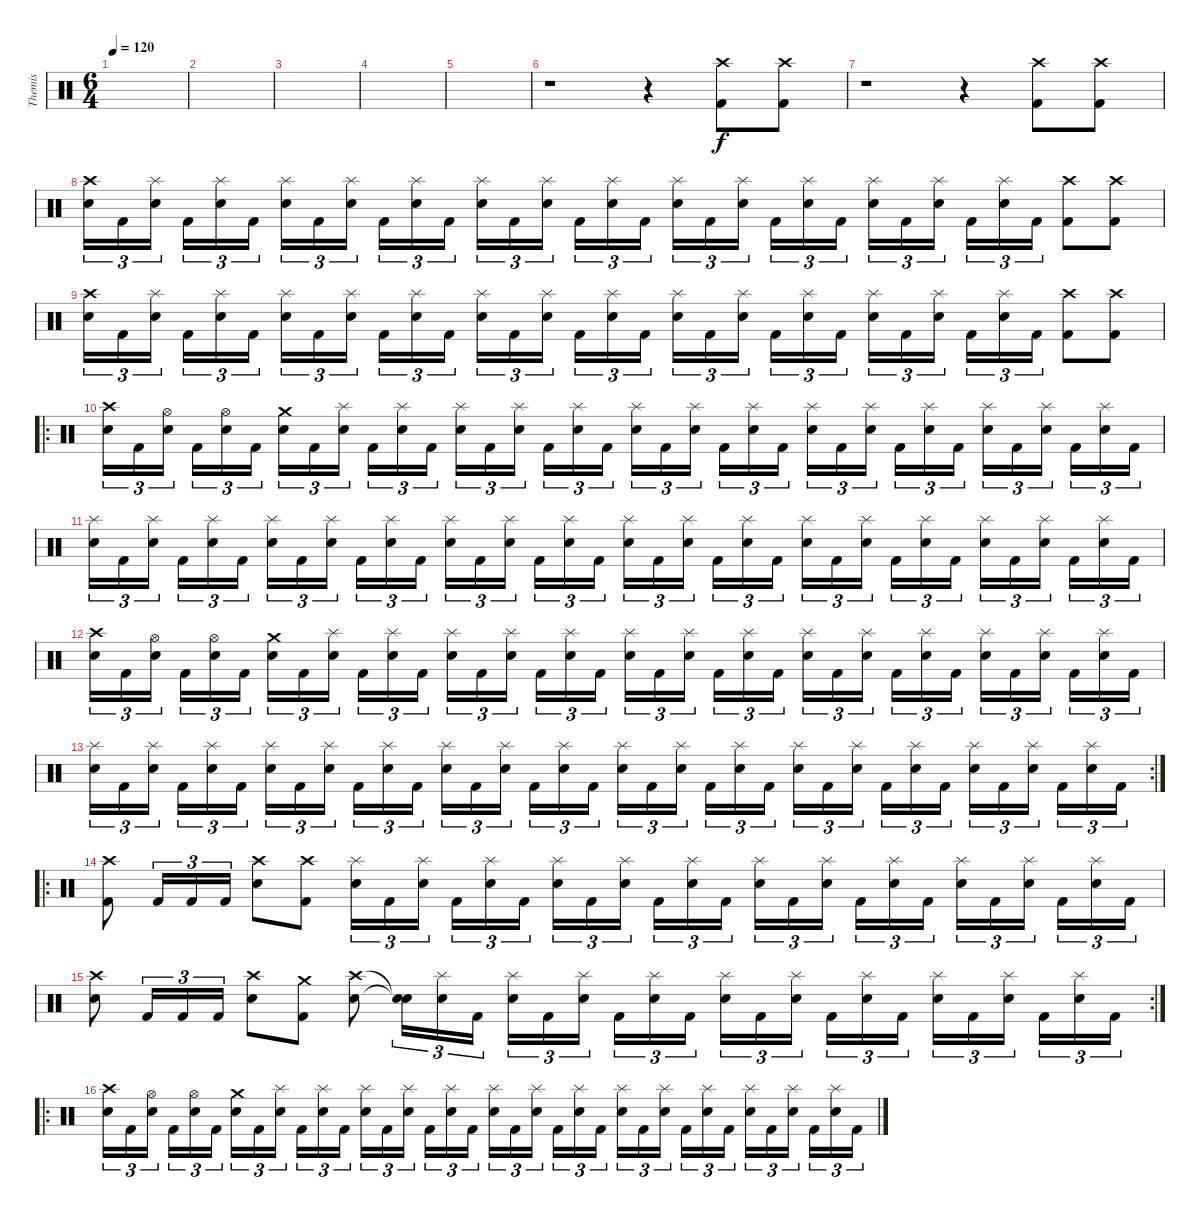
\track ("Themis" "Themis") {instrument percussion}
\staff {score}
\articulation defaults
\ts (6 4)
\tempo 120
\clef neutral
\ks c
|
|
|
|
|
r.1 r.4 ("Crash high (hit)" "Kick (hit) 2").8 ("Crash high (hit)" "Kick (hit) 2").8 |
r.1 r.4 ("Crash high (hit)" "Kick (hit) 2").8 ("Crash high (hit)" "Kick (hit) 2").8 |
("Crash high (hit)" "Electric Snare (hit)").16{tu (3 2)} "Kick (hit) 2".16{tu (3 2)} ("Splash (hit)" "Electric Snare (hit)").16{tu (3 2)} "Kick (hit) 2".16{tu (3 2)} ("Splash (hit)" "Electric Snare (hit)").16{tu (3 2)} "Kick (hit) 2".16{tu (3 2)} ("Splash (hit)" "Electric Snare (hit)").16{tu (3 2)} "Kick (hit) 2".16{tu (3 2)} ("Splash (hit)" "Electric Snare (hit)").16{tu (3 2)} "Kick (hit) 2".16{tu (3 2)} ("Splash (hit)" "Electric Snare (hit)").16{tu (3 2)} "Kick (hit) 2".16{tu (3 2)} ("Splash (hit)" "Electric Snare (hit)").16{tu (3 2)} "Kick (hit) 2".16{tu (3 2)} ("Splash (hit)" "Electric Snare (hit)").16{tu (3 2)} "Kick (hit) 2".16{tu (3 2)} ("Splash (hit)" "Electric Snare (hit)").16{tu (3 2)} "Kick (hit) 2".16{tu (3 2)} ("Splash (hit)" "Electric Snare (hit)").16{tu (3 2)} "Kick (hit) 2".16{tu (3 2)} ("Splash (hit)" "Electric Snare (hit)").16{tu (3 2)} "Kick (hit) 2".16{tu (3 2)} ("Splash (hit)" "Electric Snare (hit)").16{tu (3 2)} "Kick (hit) 2".16{tu (3 2)} ("Splash (hit)" "Electric Snare (hit)").16{tu (3 2)} "Kick (hit) 2".16{tu (3 2)} ("Splash (hit)" "Electric Snare (hit)").16{tu (3 2)} "Kick (hit) 2".16{tu (3 2)} ("Splash (hit)" "Electric Snare (hit)").16{tu (3 2)} "Kick (hit) 2".16{tu (3 2)} ("Crash high (hit)" "Kick (hit) 2").8 ("Crash high (hit)" "Kick (hit) 2").8 |
("Crash high (hit)" "Electric Snare (hit)").16{tu (3 2)} "Kick (hit) 2".16{tu (3 2)} ("Splash (hit)" "Electric Snare (hit)").16{tu (3 2)} "Kick (hit) 2".16{tu (3 2)} ("Splash (hit)" "Electric Snare (hit)").16{tu (3 2)} "Kick (hit) 2".16{tu (3 2)} ("Splash (hit)" "Electric Snare (hit)").16{tu (3 2)} "Kick (hit) 2".16{tu (3 2)} ("Splash (hit)" "Electric Snare (hit)").16{tu (3 2)} "Kick (hit) 2".16{tu (3 2)} ("Splash (hit)" "Electric Snare (hit)").16{tu (3 2)} "Kick (hit) 2".16{tu (3 2)} ("Splash (hit)" "Electric Snare (hit)").16{tu (3 2)} "Kick (hit) 2".16{tu (3 2)} ("Splash (hit)" "Electric Snare (hit)").16{tu (3 2)} "Kick (hit) 2".16{tu (3 2)} ("Splash (hit)" "Electric Snare (hit)").16{tu (3 2)} "Kick (hit) 2".16{tu (3 2)} ("Splash (hit)" "Electric Snare (hit)").16{tu (3 2)} "Kick (hit) 2".16{tu (3 2)} ("Splash (hit)" "Electric Snare (hit)").16{tu (3 2)} "Kick (hit) 2".16{tu (3 2)} ("Splash (hit)" "Electric Snare (hit)").16{tu (3 2)} "Kick (hit) 2".16{tu (3 2)} ("Splash (hit)" "Electric Snare (hit)").16{tu (3 2)} "Kick (hit) 2".16{tu (3 2)} ("Splash (hit)" "Electric Snare (hit)").16{tu (3 2)} "Kick (hit) 2".16{tu (3 2)} ("Splash (hit)" "Electric Snare (hit)").16{tu (3 2)} "Kick (hit) 2".16{tu (3 2)} ("Crash high (hit)" "Kick (hit) 2").8 ("Crash high (hit)" "Kick (hit) 2").8 |
\ro
("Crash high (hit)" "Electric Snare (hit)").16{tu (3 2)} "Kick (hit) 2".16{tu (3 2)} ("Hi-Hat (open)" "Electric Snare (hit)").16{tu (3 2)} "Kick (hit) 2".16{tu (3 2)} ("Hi-Hat (open)" "Electric Snare (hit)").16{tu (3 2)} "Kick (hit) 2".16{tu (3 2)} ("Crash medium (hit)" "Electric Snare (hit)").16{tu (3 2)} "Kick (hit) 2".16{tu (3 2)} ("Splash (hit)" "Electric Snare (hit)").16{tu (3 2)} "Kick (hit) 2".16{tu (3 2)} ("Splash (hit)" "Electric Snare (hit)").16{tu (3 2)} "Kick (hit) 2".16{tu (3 2)} ("Splash (hit)" "Electric Snare (hit)").16{tu (3 2)} "Kick (hit) 2".16{tu (3 2)} ("Splash (hit)" "Electric Snare (hit)").16{tu (3 2)} "Kick (hit) 2".16{tu (3 2)} ("Splash (hit)" "Electric Snare (hit)").16{tu (3 2)} "Kick (hit) 2".16{tu (3 2)} ("Splash (hit)" "Electric Snare (hit)").16{tu (3 2)} "Kick (hit) 2".16{tu (3 2)} ("Splash (hit)" "Electric Snare (hit)").16{tu (3 2)} "Kick (hit) 2".16{tu (3 2)} ("Splash (hit)" "Electric Snare (hit)").16{tu (3 2)} "Kick (hit) 2".16{tu (3 2)} ("Splash (hit)" "Electric Snare (hit)").16{tu (3 2)} "Kick (hit) 2".16{tu (3 2)} ("Splash (hit)" "Electric Snare (hit)").16{tu (3 2)} "Kick (hit) 2".16{tu (3 2)} ("Splash (hit)" "Electric Snare (hit)").16{tu (3 2)} "Kick (hit) 2".16{tu (3 2)} ("Splash (hit)" "Electric Snare (hit)").16{tu (3 2)} "Kick (hit) 2".16{tu (3 2)} ("Splash (hit)" "Electric Snare (hit)").16{tu (3 2)} "Kick (hit) 2".16{tu (3 2)} ("Splash (hit)" "Electric Snare (hit)").16{tu (3 2)} "Kick (hit) 2".16{tu (3 2)} |
("Splash (hit)" "Electric Snare (hit)").16{tu (3 2)} "Kick (hit) 2".16{tu (3 2)} ("Splash (hit)" "Electric Snare (hit)").16{tu (3 2)} "Kick (hit) 2".16{tu (3 2)} ("Splash (hit)" "Electric Snare (hit)").16{tu (3 2)} "Kick (hit) 2".16{tu (3 2)} ("Splash (hit)" "Electric Snare (hit)").16{tu (3 2)} "Kick (hit) 2".16{tu (3 2)} ("Splash (hit)" "Electric Snare (hit)").16{tu (3 2)} "Kick (hit) 2".16{tu (3 2)} ("Splash (hit)" "Electric Snare (hit)").16{tu (3 2)} "Kick (hit) 2".16{tu (3 2)} ("Splash (hit)" "Electric Snare (hit)").16{tu (3 2)} "Kick (hit) 2".16{tu (3 2)} ("Splash (hit)" "Electric Snare (hit)").16{tu (3 2)} "Kick (hit) 2".16{tu (3 2)} ("Splash (hit)" "Electric Snare (hit)").16{tu (3 2)} "Kick (hit) 2".16{tu (3 2)} ("Splash (hit)" "Electric Snare (hit)").16{tu (3 2)} "Kick (hit) 2".16{tu (3 2)} ("Splash (hit)" "Electric Snare (hit)").16{tu (3 2)} "Kick (hit) 2".16{tu (3 2)} ("Splash (hit)" "Electric Snare (hit)").16{tu (3 2)} "Kick (hit) 2".16{tu (3 2)} ("Splash (hit)" "Electric Snare (hit)").16{tu (3 2)} "Kick (hit) 2".16{tu (3 2)} ("Splash (hit)" "Electric Snare (hit)").16{tu (3 2)} "Kick (hit) 2".16{tu (3 2)} ("Splash (hit)" "Electric Snare (hit)").16{tu (3 2)} "Kick (hit) 2".16{tu (3 2)} ("Splash (hit)" "Electric Snare (hit)").16{tu (3 2)} "Kick (hit) 2".16{tu (3 2)} ("Splash (hit)" "Electric Snare (hit)").16{tu (3 2)} "Kick (hit) 2".16{tu (3 2)} ("Splash (hit)" "Electric Snare (hit)").16{tu (3 2)} "Kick (hit) 2".16{tu (3 2)} |
("Crash high (hit)" "Electric Snare (hit)").16{tu (3 2)} "Kick (hit) 2".16{tu (3 2)} ("Hi-Hat (open)" "Electric Snare (hit)").16{tu (3 2)} "Kick (hit) 2".16{tu (3 2)} ("Hi-Hat (open)" "Electric Snare (hit)").16{tu (3 2)} "Kick (hit) 2".16{tu (3 2)} ("Crash medium (hit)" "Electric Snare (hit)").16{tu (3 2)} "Kick (hit) 2".16{tu (3 2)} ("Splash (hit)" "Electric Snare (hit)").16{tu (3 2)} "Kick (hit) 2".16{tu (3 2)} ("Splash (hit)" "Electric Snare (hit)").16{tu (3 2)} "Kick (hit) 2".16{tu (3 2)} ("Splash (hit)" "Electric Snare (hit)").16{tu (3 2)} "Kick (hit) 2".16{tu (3 2)} ("Splash (hit)" "Electric Snare (hit)").16{tu (3 2)} "Kick (hit) 2".16{tu (3 2)} ("Splash (hit)" "Electric Snare (hit)").16{tu (3 2)} "Kick (hit) 2".16{tu (3 2)} ("Splash (hit)" "Electric Snare (hit)").16{tu (3 2)} "Kick (hit) 2".16{tu (3 2)} ("Splash (hit)" "Electric Snare (hit)").16{tu (3 2)} "Kick (hit) 2".16{tu (3 2)} ("Splash (hit)" "Electric Snare (hit)").16{tu (3 2)} "Kick (hit) 2".16{tu (3 2)} ("Splash (hit)" "Electric Snare (hit)").16{tu (3 2)} "Kick (hit) 2".16{tu (3 2)} ("Splash (hit)" "Electric Snare (hit)").16{tu (3 2)} "Kick (hit) 2".16{tu (3 2)} ("Splash (hit)" "Electric Snare (hit)").16{tu (3 2)} "Kick (hit) 2".16{tu (3 2)} ("Splash (hit)" "Electric Snare (hit)").16{tu (3 2)} "Kick (hit) 2".16{tu (3 2)} ("Splash (hit)" "Electric Snare (hit)").16{tu (3 2)} "Kick (hit) 2".16{tu (3 2)} ("Splash (hit)" "Electric Snare (hit)").16{tu (3 2)} "Kick (hit) 2".16{tu (3 2)} |
\rc 2
("Splash (hit)" "Electric Snare (hit)").16{tu (3 2)} "Kick (hit) 2".16{tu (3 2)} ("Splash (hit)" "Electric Snare (hit)").16{tu (3 2)} "Kick (hit) 2".16{tu (3 2)} ("Splash (hit)" "Electric Snare (hit)").16{tu (3 2)} "Kick (hit) 2".16{tu (3 2)} ("Splash (hit)" "Electric Snare (hit)").16{tu (3 2)} "Kick (hit) 2".16{tu (3 2)} ("Splash (hit)" "Electric Snare (hit)").16{tu (3 2)} "Kick (hit) 2".16{tu (3 2)} ("Splash (hit)" "Electric Snare (hit)").16{tu (3 2)} "Kick (hit) 2".16{tu (3 2)} ("Splash (hit)" "Electric Snare (hit)").16{tu (3 2)} "Kick (hit) 2".16{tu (3 2)} ("Splash (hit)" "Electric Snare (hit)").16{tu (3 2)} "Kick (hit) 2".16{tu (3 2)} ("Splash (hit)" "Electric Snare (hit)").16{tu (3 2)} "Kick (hit) 2".16{tu (3 2)} ("Splash (hit)" "Electric Snare (hit)").16{tu (3 2)} "Kick (hit) 2".16{tu (3 2)} ("Splash (hit)" "Electric Snare (hit)").16{tu (3 2)} "Kick (hit) 2".16{tu (3 2)} ("Splash (hit)" "Electric Snare (hit)").16{tu (3 2)} "Kick (hit) 2".16{tu (3 2)} ("Splash (hit)" "Electric Snare (hit)").16{tu (3 2)} "Kick (hit) 2".16{tu (3 2)} ("Splash (hit)" "Electric Snare (hit)").16{tu (3 2)} "Kick (hit) 2".16{tu (3 2)} ("Splash (hit)" "Electric Snare (hit)").16{tu (3 2)} "Kick (hit) 2".16{tu (3 2)} ("Splash (hit)" "Electric Snare (hit)").16{tu (3 2)} "Kick (hit) 2".16{tu (3 2)} ("Splash (hit)" "Electric Snare (hit)").16{tu (3 2)} "Kick (hit) 2".16{tu (3 2)} ("Splash (hit)" "Electric Snare (hit)").16{tu (3 2)} "Kick (hit) 2".16{tu (3 2)} |
\ro
("Crash high (hit)" "Kick (hit) 2").8 "Kick (hit) 2".16{tu (3 2)} "Kick (hit) 2".16{tu (3 2)} "Kick (hit) 2".16{tu (3 2)} ("Crash high (hit)" "Electric Snare (hit)").8 ("Crash high (hit)" "Kick (hit) 2").8 ("Splash (hit)" "Electric Snare (hit)").16{tu (3 2)} "Kick (hit) 2".16{tu (3 2)} ("Splash (hit)" "Electric Snare (hit)").16{tu (3 2)} "Kick (hit) 2".16{tu (3 2)} ("Splash (hit)" "Electric Snare (hit)").16{tu (3 2)} "Kick (hit) 2".16{tu (3 2)} ("Splash (hit)" "Electric Snare (hit)").16{tu (3 2)} "Kick (hit) 2".16{tu (3 2)} ("Splash (hit)" "Electric Snare (hit)").16{tu (3 2)} "Kick (hit) 2".16{tu (3 2)} ("Splash (hit)" "Electric Snare (hit)").16{tu (3 2)} "Kick (hit) 2".16{tu (3 2)} ("Splash (hit)" "Electric Snare (hit)").16{tu (3 2)} "Kick (hit) 2".16{tu (3 2)} ("Splash (hit)" "Electric Snare (hit)").16{tu (3 2)} "Kick (hit) 2".16{tu (3 2)} ("Splash (hit)" "Electric Snare (hit)").16{tu (3 2)} "Kick (hit) 2".16{tu (3 2)} ("Splash (hit)" "Electric Snare (hit)").16{tu (3 2)} "Kick (hit) 2".16{tu (3 2)} ("Splash (hit)" "Electric Snare (hit)").16{tu (3 2)} "Kick (hit) 2".16{tu (3 2)} ("Splash (hit)" "Electric Snare (hit)").16{tu (3 2)} "Kick (hit) 2".16{tu (3 2)} |
\rc 2
("Crash high (hit)" "Electric Snare (hit)").8 "Kick (hit) 2".16{tu (3 2)} "Kick (hit) 2".16{tu (3 2)} "Kick (hit) 2".16{tu (3 2)} ("Crash high (hit)" "Electric Snare (hit)").8 ("Crash medium (hit)" "Kick (hit) 2").8 ("Crash high (hit)" "Electric Snare (hit)").8 ("Snare (hit)"{t} "Snare (hit)"{t}).16{tu (3 2)} ("Splash (hit)" "Electric Snare (hit)").16{tu (3 2)} "Kick (hit) 2".16{tu (3 2)} ("Splash (hit)" "Electric Snare (hit)").16{tu (3 2)} "Kick (hit) 2".16{tu (3 2)} ("Splash (hit)" "Electric Snare (hit)").16{tu (3 2)} "Kick (hit) 2".16{tu (3 2)} ("Splash (hit)" "Electric Snare (hit)").16{tu (3 2)} "Kick (hit) 2".16{tu (3 2)} ("Splash (hit)" "Electric Snare (hit)").16{tu (3 2)} "Kick (hit) 2".16{tu (3 2)} ("Splash (hit)" "Electric Snare (hit)").16{tu (3 2)} "Kick (hit) 2".16{tu (3 2)} ("Splash (hit)" "Electric Snare (hit)").16{tu (3 2)} "Kick (hit) 2".16{tu (3 2)} ("Splash (hit)" "Electric Snare (hit)").16{tu (3 2)} "Kick (hit) 2".16{tu (3 2)} ("Splash (hit)" "Electric Snare (hit)").16{tu (3 2)} "Kick (hit) 2".16{tu (3 2)} ("Splash (hit)" "Electric Snare (hit)").16{tu (3 2)} "Kick (hit) 2".16{tu (3 2)} |
\ro
("Crash high (hit)" "Electric Snare (hit)").16{tu (3 2)} "Kick (hit) 2".16{tu (3 2)} ("Hi-Hat (open)" "Electric Snare (hit)").16{tu (3 2)} "Kick (hit) 2".16{tu (3 2)} ("Hi-Hat (open)" "Electric Snare (hit)").16{tu (3 2)} "Kick (hit) 2".16{tu (3 2)} ("Crash medium (hit)" "Electric Snare (hit)").16{tu (3 2)} "Kick (hit) 2".16{tu (3 2)} ("Splash (hit)" "Electric Snare (hit)").16{tu (3 2)} "Kick (hit) 2".16{tu (3 2)} ("Splash (hit)" "Electric Snare (hit)").16{tu (3 2)} "Kick (hit) 2".16{tu (3 2)} ("Splash (hit)" "Electric Snare (hit)").16{tu (3 2)} "Kick (hit) 2".16{tu (3 2)} ("Splash (hit)" "Electric Snare (hit)").16{tu (3 2)} "Kick (hit) 2".16{tu (3 2)} ("Splash (hit)" "Electric Snare (hit)").16{tu (3 2)} "Kick (hit) 2".16{tu (3 2)} ("Splash (hit)" "Electric Snare (hit)").16{tu (3 2)} "Kick (hit) 2".16{tu (3 2)} ("Splash (hit)" "Electric Snare (hit)").16{tu (3 2)} "Kick (hit) 2".16{tu (3 2)} ("Splash (hit)" "Electric Snare (hit)").16{tu (3 2)} "Kick (hit) 2".16{tu (3 2)} ("Splash (hit)" "Electric Snare (hit)").16{tu (3 2)} "Kick (hit) 2".16{tu (3 2)} ("Splash (hit)" "Electric Snare (hit)").16{tu (3 2)} "Kick (hit) 2".16{tu (3 2)} ("Splash (hit)" "Electric Snare (hit)").16{tu (3 2)} "Kick (hit) 2".16{tu (3 2)} ("Splash (hit)" "Electric Snare (hit)").16{tu (3 2)} "Kick (hit) 2".16{tu (3 2)} ("Splash (hit)" "Electric Snare (hit)").16{tu (3 2)} "Kick (hit) 2".16{tu (3 2)} ("Splash (hit)" "Electric Snare (hit)").16{tu (3 2)} "Kick (hit) 2".16{tu (3 2)}
